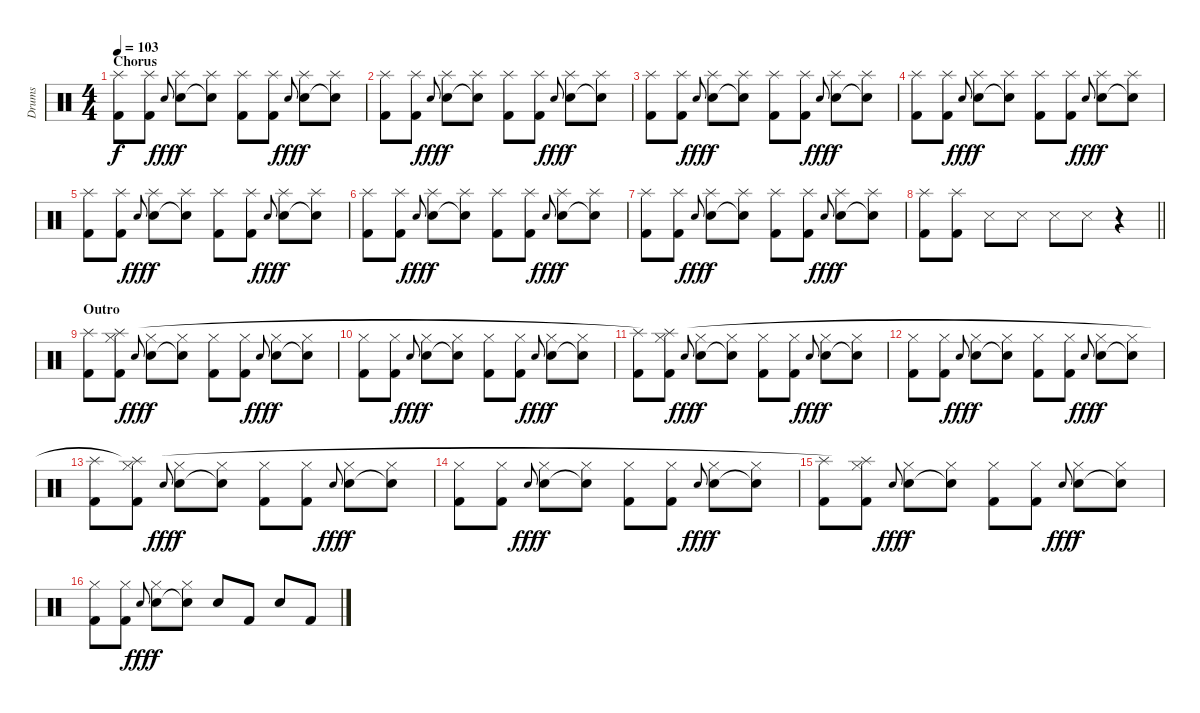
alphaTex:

\track ("Drums" "Drums") {instrument percussion}
\staff {score}
\articulation defaults
\ts (4 4)
\section ("" "Chorus")
\tempo 103
\clef neutral
\ks c
("Kick (hit) 2" "Splash (hit)").8{dy f} ("Kick (hit) 2" "Splash (hit)").8 "Snare (hit) 2"{h}.8{gr onbeat dy fff} ("Snare (hit) 2" "Splash (hit)").8{dy f} ("Snare (hit) 2"{t} "Splash (hit)").8 ("Kick (hit) 2" "Splash (hit)").8 ("Kick (hit) 2" "Splash (hit)").8 "Snare (hit) 2"{h}.8{gr onbeat dy fff} ("Snare (hit) 2" "Splash (hit)").8{dy f} ("Snare (hit) 2"{t} "Splash (hit)").8 |
("Kick (hit) 2" "Splash (hit)").8 ("Kick (hit) 2" "Splash (hit)").8 "Snare (hit) 2"{h}.8{gr onbeat dy fff} ("Snare (hit) 2" "Splash (hit)").8{dy f} ("Snare (hit) 2"{t} "Splash (hit)").8 ("Kick (hit) 2" "Splash (hit)").8 ("Kick (hit) 2" "Splash (hit)").8 "Snare (hit) 2"{h}.8{gr onbeat dy fff} ("Snare (hit) 2" "Splash (hit)").8{dy f} ("Snare (hit) 2"{t} "Splash (hit)").8 |
("Kick (hit) 2" "Splash (hit)").8 ("Kick (hit) 2" "Splash (hit)").8 "Snare (hit) 2"{h}.8{gr onbeat dy fff} ("Snare (hit) 2" "Splash (hit)").8{dy f} ("Snare (hit) 2"{t} "Splash (hit)").8 ("Kick (hit) 2" "Splash (hit)").8 ("Kick (hit) 2" "Splash (hit)").8 "Snare (hit) 2"{h}.8{gr onbeat dy fff} ("Snare (hit) 2" "Splash (hit)").8{dy f} ("Snare (hit) 2"{t} "Splash (hit)").8 |
("Kick (hit) 2" "Splash (hit)").8 ("Kick (hit) 2" "Splash (hit)").8 "Snare (hit) 2"{h}.8{gr onbeat dy fff} ("Snare (hit) 2" "Splash (hit)").8{dy f} ("Snare (hit) 2"{t} "Splash (hit)").8 ("Kick (hit) 2" "Splash (hit)").8 ("Kick (hit) 2" "Splash (hit)").8 "Snare (hit) 2"{h}.8{gr onbeat dy fff} ("Snare (hit) 2" "Splash (hit)").8{dy f} ("Snare (hit) 2"{t} "Splash (hit)").8 |
("Kick (hit) 2" "Splash (hit)").8 ("Kick (hit) 2" "Splash (hit)").8 "Snare (hit) 2"{h}.8{gr onbeat dy fff} ("Snare (hit) 2" "Splash (hit)").8{dy f} ("Snare (hit) 2"{t} "Splash (hit)").8 ("Kick (hit) 2" "Splash (hit)").8 ("Kick (hit) 2" "Splash (hit)").8 "Snare (hit) 2"{h}.8{gr onbeat dy fff} ("Snare (hit) 2" "Splash (hit)").8{dy f} ("Snare (hit) 2"{t} "Splash (hit)").8 |
("Kick (hit) 2" "Splash (hit)").8 ("Kick (hit) 2" "Splash (hit)").8 "Snare (hit) 2"{h}.8{gr onbeat dy fff} ("Snare (hit) 2" "Splash (hit)").8{dy f} ("Snare (hit) 2"{t} "Splash (hit)").8 ("Kick (hit) 2" "Splash (hit)").8 ("Kick (hit) 2" "Splash (hit)").8 "Snare (hit) 2"{h}.8{gr onbeat dy fff} ("Snare (hit) 2" "Splash (hit)").8{dy f} ("Snare (hit) 2"{t} "Splash (hit)").8 |
("Kick (hit) 2" "Splash (hit)").8 ("Kick (hit) 2" "Splash (hit)").8 "Snare (hit) 2"{h}.8{gr onbeat dy fff} ("Snare (hit) 2" "Splash (hit)").8{dy f} ("Snare (hit) 2"{t} "Splash (hit)").8 ("Kick (hit) 2" "Splash (hit)").8 ("Kick (hit) 2" "Splash (hit)").8 "Snare (hit) 2"{h}.8{gr onbeat dy fff} ("Snare (hit) 2" "Splash (hit)").8{dy f} ("Snare (hit) 2"{t} "Splash (hit)").8 |
\barLineRight lightlight
("Kick (hit) 2" "Splash (hit)").8 ("Kick (hit) 2" "Splash (hit)").8 "Metronome (hit)".8 "Metronome (hit)".8 "Metronome (hit)".8 "Metronome (hit)".8 r.4 |
\section ("" "Outro")
("Kick (hit) 2" "Splash (hit)").8 ("Kick (hit) 2" "Hi-Hat (closed)" "Splash (hit)").8 "Snare (hit) 2"{h}.8{gr onbeat dy fff} ("Snare (hit) 2" "Hi-Hat (closed)").8{dy f} ("Snare (hit) 2"{t} "Hi-Hat (closed)").8 ("Kick (hit) 2" "Hi-Hat (closed)").8 ("Kick (hit) 2" "Hi-Hat (closed)").8 "Snare (hit) 2"{h}.8{gr onbeat dy fff} ("Snare (hit) 2" "Hi-Hat (closed)").8{dy f} ("Snare (hit) 2"{t} "Hi-Hat (closed)").8 |
("Kick (hit) 2" "Hi-Hat (closed)").8 ("Kick (hit) 2" "Hi-Hat (closed)").8 "Snare (hit) 2"{h}.8{gr onbeat dy fff} ("Snare (hit) 2" "Hi-Hat (closed)").8{dy f} ("Snare (hit) 2"{t} "Hi-Hat (closed)").8 ("Kick (hit) 2" "Hi-Hat (closed)").8 ("Kick (hit) 2" "Hi-Hat (closed)").8 "Snare (hit) 2"{h}.8{gr onbeat dy fff} ("Snare (hit) 2" "Hi-Hat (closed)").8{dy f} ("Snare (hit) 2"{t} "Hi-Hat (closed)").8 |
("Kick (hit) 2" "Splash (hit)").8 ("Kick (hit) 2" "Hi-Hat (closed)" "Splash (hit)"{t}).8 "Snare (hit) 2"{h}.8{gr onbeat dy fff} ("Snare (hit) 2" "Hi-Hat (closed)").8{dy f} ("Snare (hit) 2"{t} "Hi-Hat (closed)").8 ("Kick (hit) 2" "Hi-Hat (closed)").8 ("Kick (hit) 2" "Hi-Hat (closed)").8 "Snare (hit) 2"{h}.8{gr onbeat dy fff} ("Snare (hit) 2" "Hi-Hat (closed)").8{dy f} ("Snare (hit) 2"{t} "Hi-Hat (closed)").8 |
("Kick (hit) 2" "Hi-Hat (closed)").8 ("Kick (hit) 2" "Hi-Hat (closed)").8 "Snare (hit) 2"{h}.8{gr onbeat dy fff} ("Snare (hit) 2" "Hi-Hat (closed)").8{dy f} ("Snare (hit) 2"{t} "Hi-Hat (closed)").8 ("Kick (hit) 2" "Hi-Hat (closed)").8 ("Kick (hit) 2" "Hi-Hat (closed)").8 "Snare (hit) 2"{h}.8{gr onbeat dy fff} ("Snare (hit) 2" "Hi-Hat (closed)").8{dy f} ("Snare (hit) 2"{t} "Hi-Hat (closed)").8 |
("Kick (hit) 2" "Splash (hit)").8 ("Kick (hit) 2" "Hi-Hat (closed)" "Splash (hit)"{t}).8 "Snare (hit) 2"{h}.8{gr onbeat dy fff} ("Snare (hit) 2" "Hi-Hat (closed)").8{dy f} ("Snare (hit) 2"{t} "Hi-Hat (closed)").8 ("Kick (hit) 2" "Hi-Hat (closed)").8 ("Kick (hit) 2" "Hi-Hat (closed)").8 "Snare (hit) 2"{h}.8{gr onbeat dy fff} ("Snare (hit) 2" "Hi-Hat (closed)").8{dy f} ("Snare (hit) 2"{t} "Hi-Hat (closed)").8 |
("Kick (hit) 2" "Hi-Hat (closed)").8 ("Kick (hit) 2" "Hi-Hat (closed)").8 "Snare (hit) 2"{h}.8{gr onbeat dy fff} ("Snare (hit) 2" "Hi-Hat (closed)").8{dy f} ("Snare (hit) 2"{t} "Hi-Hat (closed)").8 ("Kick (hit) 2" "Hi-Hat (closed)").8 ("Kick (hit) 2" "Hi-Hat (closed)").8 "Snare (hit) 2"{h}.8{gr onbeat dy fff} ("Snare (hit) 2" "Hi-Hat (closed)").8{dy f} ("Snare (hit) 2"{t} "Hi-Hat (closed)").8 |
("Kick (hit) 2" "Splash (hit)").8 ("Kick (hit) 2" "Hi-Hat (closed)" "Splash (hit)"{t}).8 "Snare (hit) 2"{h}.8{gr onbeat dy fff} ("Snare (hit) 2" "Hi-Hat (closed)").8{dy f} ("Snare (hit) 2"{t} "Hi-Hat (closed)").8 ("Kick (hit) 2" "Hi-Hat (closed)").8 ("Kick (hit) 2" "Hi-Hat (closed)").8 "Snare (hit) 2"{h}.8{gr onbeat dy fff} ("Snare (hit) 2" "Hi-Hat (closed)").8{dy f} ("Snare (hit) 2"{t} "Hi-Hat (closed)").8 |
("Kick (hit) 2" "Hi-Hat (closed)").8 ("Kick (hit) 2" "Hi-Hat (closed)").8 "Snare (hit) 2"{h}.8{gr onbeat dy fff} ("Snare (hit) 2" "Hi-Hat (closed)").8{dy f} ("Snare (hit) 2"{t} "Hi-Hat (closed)").8 "Snare (hit) 2".8 "Kick (hit) 2".8 "Snare (hit) 2".8 "Kick (hit) 2".8
